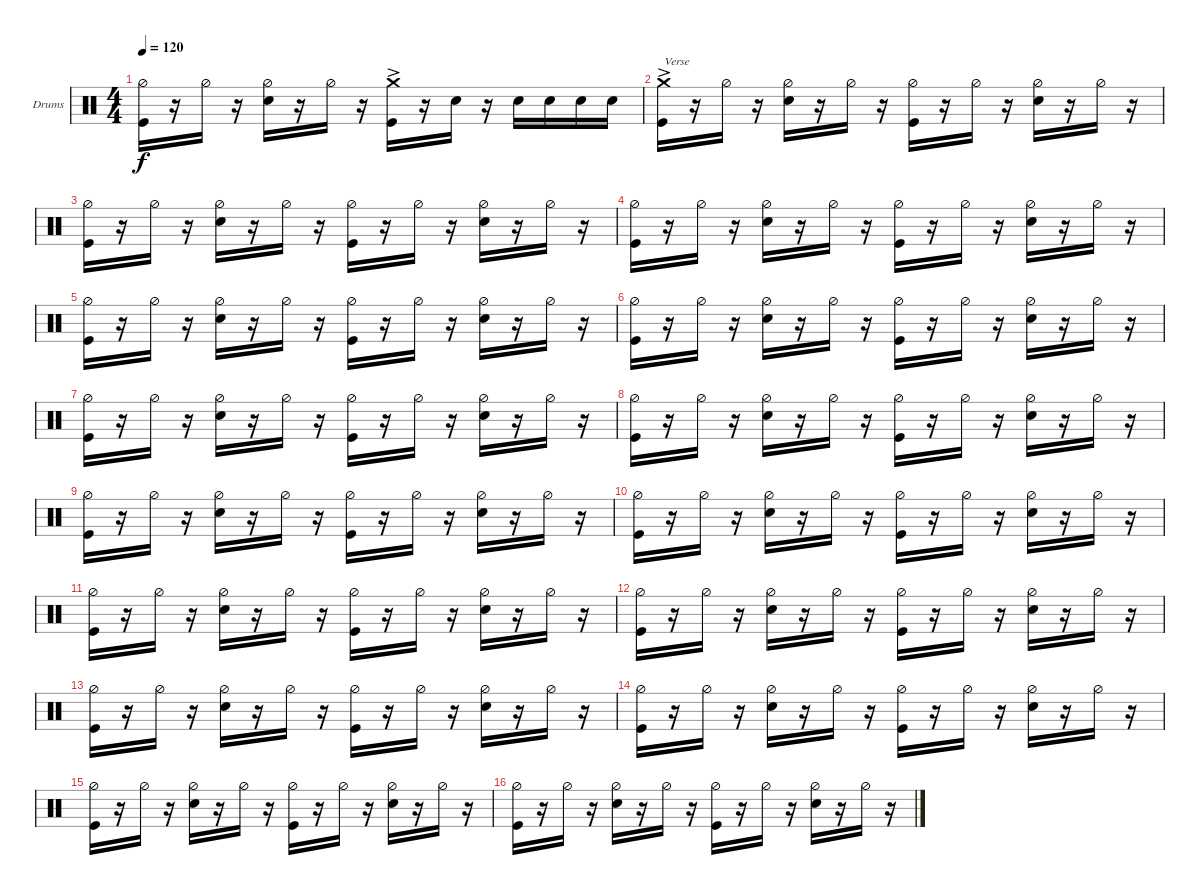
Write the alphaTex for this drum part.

\defaultSystemsLayout 4
\bracketExtendMode groupsimilarinstruments
\firstSystemTrackNameOrientation horizontal
\otherSystemsTrackNameOrientation horizontal
\track ("Drums  SK" "Drums") {instrument percussion}
\staff {score}
\articulation defaults
\ts (4 4)
\tempo 120
\clef neutral
\ks c
("Kick (hit)" "Hi-Hat (half)").16{dy f} r.16 "Hi-Hat (half)".16 r.16 ("Snare (hit) 2" "Hi-Hat (half)").16 r.16 "Hi-Hat (half)".16 r.16 ("Kick (hit)" "Crash medium (hit)"{ac}).16 r.16 "Snare (hit) 2".16 r.16 "Snare (hit) 2".16 "Snare (hit) 2".16 "Snare (hit) 2".16 "Snare (hit) 2".16 |
("Kick (hit)" "Crash medium (hit)"{ac}).16{txt "Verse"} r.16 "Hi-Hat (half)".16 r.16 ("Snare (hit) 2" "Hi-Hat (half)").16 r.16 "Hi-Hat (half)".16 r.16 ("Kick (hit)" "Hi-Hat (half)").16 r.16 "Hi-Hat (half)".16 r.16 ("Snare (hit) 2" "Hi-Hat (half)").16 r.16 "Hi-Hat (half)".16 r.16 |
("Kick (hit)" "Hi-Hat (half)").16 r.16 "Hi-Hat (half)".16 r.16 ("Snare (hit) 2" "Hi-Hat (half)").16 r.16 "Hi-Hat (half)".16 r.16 ("Kick (hit)" "Hi-Hat (half)").16 r.16 "Hi-Hat (half)".16 r.16 ("Snare (hit) 2" "Hi-Hat (half)").16 r.16 "Hi-Hat (half)".16 r.16 |
("Kick (hit)" "Hi-Hat (half)").16 r.16 "Hi-Hat (half)".16 r.16 ("Snare (hit) 2" "Hi-Hat (half)").16 r.16 "Hi-Hat (half)".16 r.16 ("Kick (hit)" "Hi-Hat (half)").16 r.16 "Hi-Hat (half)".16 r.16 ("Snare (hit) 2" "Hi-Hat (half)").16 r.16 "Hi-Hat (half)".16 r.16 |
("Kick (hit)" "Hi-Hat (half)").16 r.16 "Hi-Hat (half)".16 r.16 ("Snare (hit) 2" "Hi-Hat (half)").16 r.16 "Hi-Hat (half)".16 r.16 ("Kick (hit)" "Hi-Hat (half)").16 r.16 "Hi-Hat (half)".16 r.16 ("Snare (hit) 2" "Hi-Hat (half)").16 r.16 "Hi-Hat (half)".16 r.16 |
("Kick (hit)" "Hi-Hat (half)").16 r.16 "Hi-Hat (half)".16 r.16 ("Snare (hit) 2" "Hi-Hat (half)").16 r.16 "Hi-Hat (half)".16 r.16 ("Kick (hit)" "Hi-Hat (half)").16 r.16 "Hi-Hat (half)".16 r.16 ("Snare (hit) 2" "Hi-Hat (half)").16 r.16 "Hi-Hat (half)".16 r.16 |
("Kick (hit)" "Hi-Hat (half)").16 r.16 "Hi-Hat (half)".16 r.16 ("Snare (hit) 2" "Hi-Hat (half)").16 r.16 "Hi-Hat (half)".16 r.16 ("Kick (hit)" "Hi-Hat (half)").16 r.16 "Hi-Hat (half)".16 r.16 ("Snare (hit) 2" "Hi-Hat (half)").16 r.16 "Hi-Hat (half)".16 r.16 |
("Kick (hit)" "Hi-Hat (half)").16 r.16 "Hi-Hat (half)".16 r.16 ("Snare (hit) 2" "Hi-Hat (half)").16 r.16 "Hi-Hat (half)".16 r.16 ("Kick (hit)" "Hi-Hat (half)").16 r.16 "Hi-Hat (half)".16 r.16 ("Snare (hit) 2" "Hi-Hat (half)").16 r.16 "Hi-Hat (half)".16 r.16 |
("Kick (hit)" "Hi-Hat (half)").16 r.16 "Hi-Hat (half)".16 r.16 ("Snare (hit) 2" "Hi-Hat (half)").16 r.16 "Hi-Hat (half)".16 r.16 ("Kick (hit)" "Hi-Hat (half)").16 r.16 "Hi-Hat (half)".16 r.16 ("Snare (hit) 2" "Hi-Hat (half)").16 r.16 "Hi-Hat (half)".16 r.16 |
("Kick (hit)" "Hi-Hat (half)").16 r.16 "Hi-Hat (half)".16 r.16 ("Snare (hit) 2" "Hi-Hat (half)").16 r.16 "Hi-Hat (half)".16 r.16 ("Kick (hit)" "Hi-Hat (half)").16 r.16 "Hi-Hat (half)".16 r.16 ("Snare (hit) 2" "Hi-Hat (half)").16 r.16 "Hi-Hat (half)".16 r.16 |
("Kick (hit)" "Hi-Hat (half)").16 r.16 "Hi-Hat (half)".16 r.16 ("Snare (hit) 2" "Hi-Hat (half)").16 r.16 "Hi-Hat (half)".16 r.16 ("Kick (hit)" "Hi-Hat (half)").16 r.16 "Hi-Hat (half)".16 r.16 ("Snare (hit) 2" "Hi-Hat (half)").16 r.16 "Hi-Hat (half)".16 r.16 |
("Kick (hit)" "Hi-Hat (half)").16 r.16 "Hi-Hat (half)".16 r.16 ("Snare (hit) 2" "Hi-Hat (half)").16 r.16 "Hi-Hat (half)".16 r.16 ("Kick (hit)" "Hi-Hat (half)").16 r.16 "Hi-Hat (half)".16 r.16 ("Snare (hit) 2" "Hi-Hat (half)").16 r.16 "Hi-Hat (half)".16 r.16 |
("Kick (hit)" "Hi-Hat (half)").16 r.16 "Hi-Hat (half)".16 r.16 ("Snare (hit) 2" "Hi-Hat (half)").16 r.16 "Hi-Hat (half)".16 r.16 ("Kick (hit)" "Hi-Hat (half)").16 r.16 "Hi-Hat (half)".16 r.16 ("Snare (hit) 2" "Hi-Hat (half)").16 r.16 "Hi-Hat (half)".16 r.16 |
("Kick (hit)" "Hi-Hat (half)").16 r.16 "Hi-Hat (half)".16 r.16 ("Snare (hit) 2" "Hi-Hat (half)").16 r.16 "Hi-Hat (half)".16 r.16 ("Kick (hit)" "Hi-Hat (half)").16 r.16 "Hi-Hat (half)".16 r.16 ("Snare (hit) 2" "Hi-Hat (half)").16 r.16 "Hi-Hat (half)".16 r.16 |
("Kick (hit)" "Hi-Hat (half)").16 r.16 "Hi-Hat (half)".16 r.16 ("Snare (hit) 2" "Hi-Hat (half)").16 r.16 "Hi-Hat (half)".16 r.16 ("Kick (hit)" "Hi-Hat (half)").16 r.16 "Hi-Hat (half)".16 r.16 ("Snare (hit) 2" "Hi-Hat (half)").16 r.16 "Hi-Hat (half)".16 r.16 |
("Kick (hit)" "Hi-Hat (half)").16 r.16 "Hi-Hat (half)".16 r.16 ("Snare (hit) 2" "Hi-Hat (half)").16 r.16 "Hi-Hat (half)".16 r.16 ("Kick (hit)" "Hi-Hat (half)").16 r.16 "Hi-Hat (half)".16 r.16 ("Snare (hit) 2" "Hi-Hat (half)").16 r.16 "Hi-Hat (half)".16 r.16
